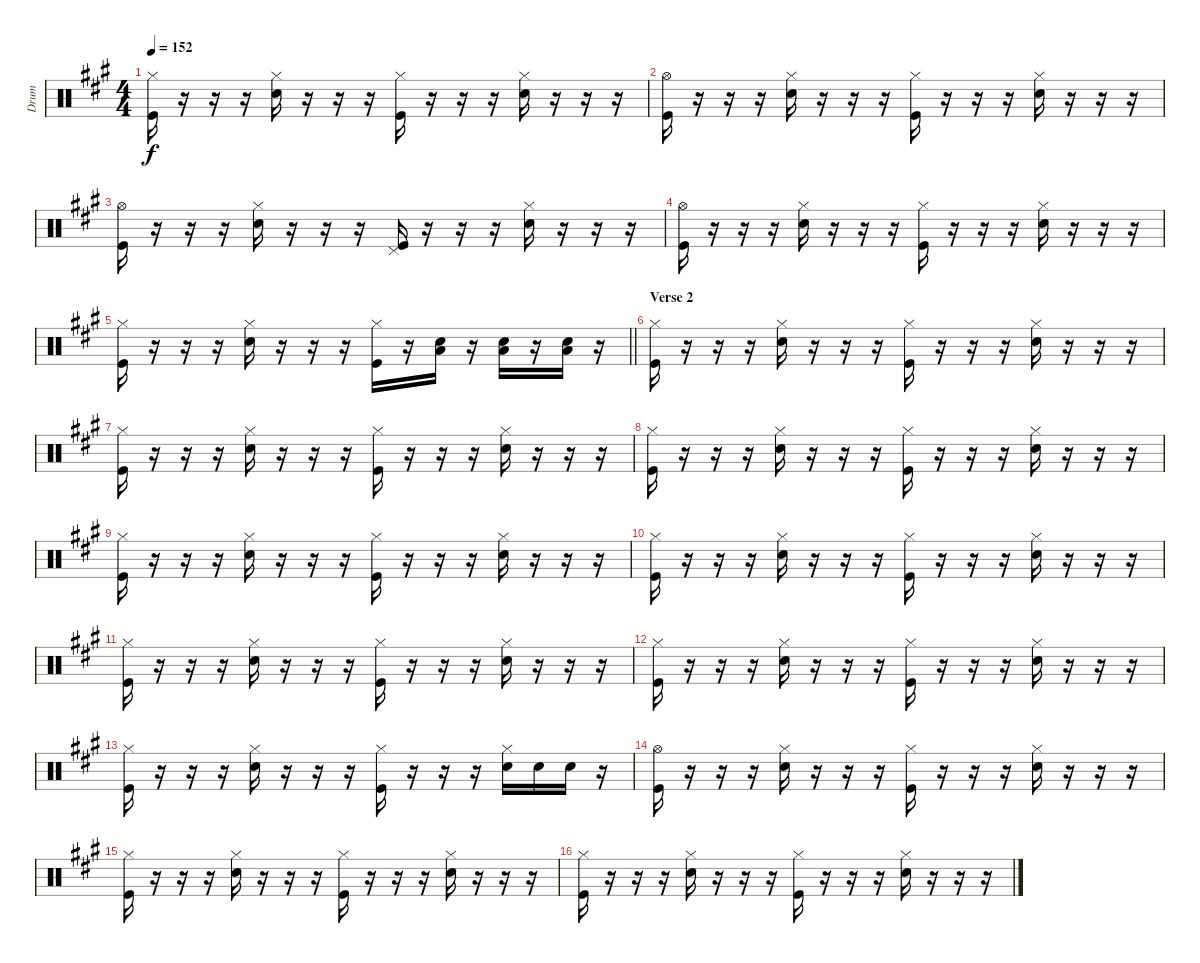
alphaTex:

\track ("Drum" "Drum") {instrument percussion}
\staff {score}
\articulation defaults
\ts (4 4)
\tempo 152
\clef neutral
\ks a
("Kick (hit)" "Hi-Hat (closed)").16{dy f} r.16 r.16 r.16 ("Snare (hit) 2" "Hi-Hat (closed)").16 r.16 r.16 r.16 ("Kick (hit)" "Hi-Hat (closed)").16 r.16 r.16 r.16 ("Snare (hit) 2" "Hi-Hat (closed)").16 r.16 r.16 r.16 |
("Kick (hit)" "Hi-Hat (open)").16 r.16 r.16 r.16 ("Snare (hit) 2" "Hi-Hat (closed)").16 r.16 r.16 r.16 ("Kick (hit)" "Hi-Hat (closed)").16 r.16 r.16 r.16 ("Snare (hit) 2" "Hi-Hat (closed)").16 r.16 r.16 r.16 |
("Kick (hit)" "Hi-Hat (open)").16 r.16 r.16 r.16 ("Snare (hit) 2" "Hi-Hat (closed)").16 r.16 r.16 r.16 ("Kick (hit)" "Pedal Hi-Hat (hit)").16 r.16 r.16 r.16 ("Snare (hit) 2" "Hi-Hat (closed)").16 r.16 r.16 r.16 |
("Kick (hit)" "Hi-Hat (open)").16 r.16 r.16 r.16 ("Snare (hit) 2" "Hi-Hat (closed)").16 r.16 r.16 r.16 ("Kick (hit)" "Hi-Hat (closed)").16 r.16 r.16 r.16 ("Snare (hit) 2" "Hi-Hat (closed)").16 r.16 r.16 r.16 |
\barLineRight lightlight
("Kick (hit)" "Hi-Hat (closed)").16 r.16 r.16 r.16 ("Snare (hit) 2" "Hi-Hat (closed)").16 r.16 r.16 r.16 ("Kick (hit)" "Hi-Hat (closed)").16 r.16 ("Snare (hit) 2" "Low Floor Tom (hit)").16 r.16 ("Snare (hit) 2" "Low Floor Tom (hit)").16 r.16 ("Snare (hit) 2" "Low Floor Tom (hit)").16 r.16 |
\section ("" "Verse 2")
("Kick (hit)" "Hi-Hat (closed)").16 r.16 r.16 r.16 ("Snare (hit) 2" "Hi-Hat (closed)").16 r.16 r.16 r.16 ("Kick (hit)" "Hi-Hat (closed)").16 r.16 r.16 r.16 ("Snare (hit) 2" "Hi-Hat (closed)").16 r.16 r.16 r.16 |
("Kick (hit)" "Hi-Hat (closed)").16 r.16 r.16 r.16 ("Snare (hit) 2" "Hi-Hat (closed)").16 r.16 r.16 r.16 ("Kick (hit)" "Hi-Hat (closed)").16 r.16 r.16 r.16 ("Snare (hit) 2" "Hi-Hat (closed)").16 r.16 r.16 r.16 |
("Kick (hit)" "Hi-Hat (closed)").16 r.16 r.16 r.16 ("Snare (hit) 2" "Hi-Hat (closed)").16 r.16 r.16 r.16 ("Kick (hit)" "Hi-Hat (closed)").16 r.16 r.16 r.16 ("Snare (hit) 2" "Hi-Hat (closed)").16 r.16 r.16 r.16 |
("Kick (hit)" "Hi-Hat (closed)").16 r.16 r.16 r.16 ("Snare (hit) 2" "Hi-Hat (closed)").16 r.16 r.16 r.16 ("Kick (hit)" "Hi-Hat (closed)").16 r.16 r.16 r.16 ("Snare (hit) 2" "Hi-Hat (closed)").16 r.16 r.16 r.16 |
("Kick (hit)" "Hi-Hat (closed)").16 r.16 r.16 r.16 ("Snare (hit) 2" "Hi-Hat (closed)").16 r.16 r.16 r.16 ("Kick (hit)" "Hi-Hat (closed)").16 r.16 r.16 r.16 ("Snare (hit) 2" "Hi-Hat (closed)").16 r.16 r.16 r.16 |
("Kick (hit)" "Hi-Hat (closed)").16 r.16 r.16 r.16 ("Snare (hit) 2" "Hi-Hat (closed)").16 r.16 r.16 r.16 ("Kick (hit)" "Hi-Hat (closed)").16 r.16 r.16 r.16 ("Snare (hit) 2" "Hi-Hat (closed)").16 r.16 r.16 r.16 |
("Kick (hit)" "Hi-Hat (closed)").16 r.16 r.16 r.16 ("Snare (hit) 2" "Hi-Hat (closed)").16 r.16 r.16 r.16 ("Kick (hit)" "Hi-Hat (closed)").16 r.16 r.16 r.16 ("Snare (hit) 2" "Hi-Hat (closed)").16 r.16 r.16 r.16 |
("Kick (hit)" "Hi-Hat (closed)").16 r.16 r.16 r.16 ("Snare (hit) 2" "Hi-Hat (closed)").16 r.16 r.16 r.16 ("Kick (hit)" "Hi-Hat (closed)").16 r.16 r.16 r.16 ("Snare (hit) 2" "Hi-Hat (closed)").16 "Snare (hit) 2".16 "Snare (hit) 2".16 r.16 |
("Kick (hit)" "Hi-Hat (open)").16 r.16 r.16 r.16 ("Snare (hit) 2" "Hi-Hat (closed)").16 r.16 r.16 r.16 ("Kick (hit)" "Hi-Hat (closed)").16 r.16 r.16 r.16 ("Snare (hit) 2" "Hi-Hat (closed)").16 r.16 r.16 r.16 |
("Kick (hit)" "Hi-Hat (closed)").16 r.16 r.16 r.16 ("Snare (hit) 2" "Hi-Hat (closed)").16 r.16 r.16 r.16 ("Kick (hit)" "Hi-Hat (closed)").16 r.16 r.16 r.16 ("Snare (hit) 2" "Hi-Hat (closed)").16 r.16 r.16 r.16 |
("Kick (hit)" "Hi-Hat (closed)").16 r.16 r.16 r.16 ("Snare (hit) 2" "Hi-Hat (closed)").16 r.16 r.16 r.16 ("Kick (hit)" "Hi-Hat (closed)").16 r.16 r.16 r.16 ("Snare (hit) 2" "Hi-Hat (closed)").16 r.16 r.16 r.16
